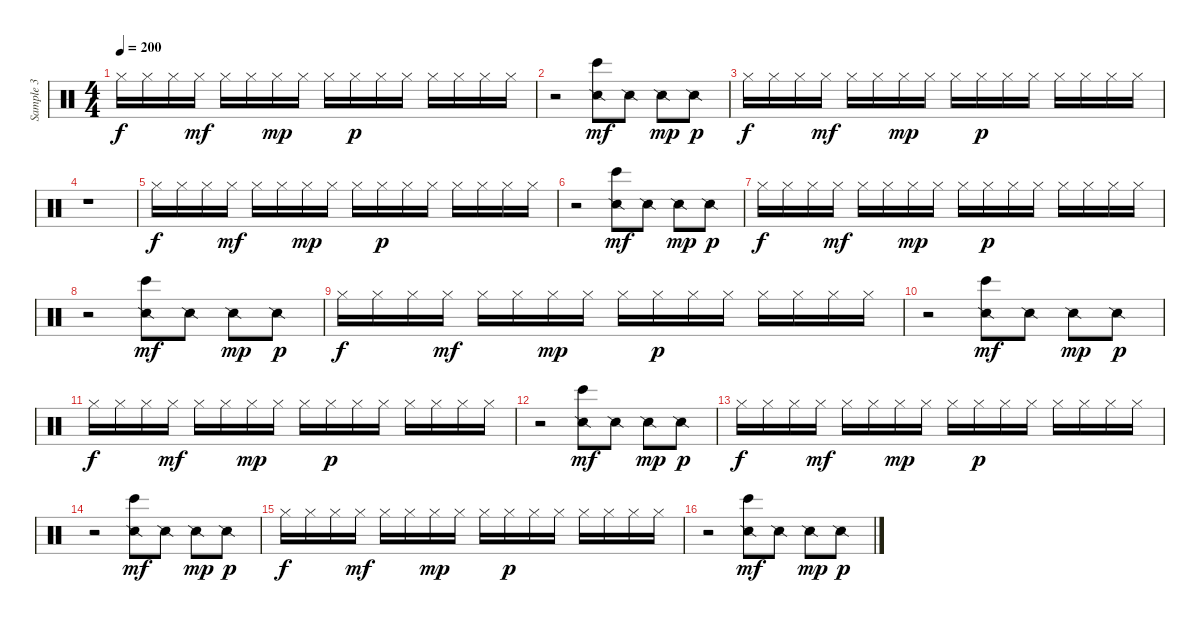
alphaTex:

\track ("Sample 3" "Sample 3") {instrument percussion}
\staff {score}
\articulation defaults
\ts (4 4)
\tempo 200
\clef neutral
\ks c "Hi-Hat (closed)".16{dy f} "Hi-Hat (closed)".16 "Hi-Hat (closed)".16 "Hi-Hat (closed)".16{dy mf} "Hi-Hat (closed)".16 "Hi-Hat (closed)".16 "Hi-Hat (closed)".16{dy mp} "Hi-Hat (closed)".16 "Hi-Hat (closed)".16 "Hi-Hat (closed)".16{dy p} "Hi-Hat (closed)".16 "Hi-Hat (closed)".16 "Hi-Hat (closed)".16 "Hi-Hat (closed)".16 "Hi-Hat (closed)".16 "Hi-Hat (closed)".16
|
r.2 ("Snare (side stick) 2" "Bongo High (hit)").8{dy mf} "Snare (side stick) 2".8 "Snare (side stick) 2".8{dy mp} "Snare (side stick) 2".8{dy p} |
"Hi-Hat (closed)".16{dy f} "Hi-Hat (closed)".16 "Hi-Hat (closed)".16 "Hi-Hat (closed)".16{dy mf} "Hi-Hat (closed)".16 "Hi-Hat (closed)".16 "Hi-Hat (closed)".16{dy mp} "Hi-Hat (closed)".16 "Hi-Hat (closed)".16 "Hi-Hat (closed)".16{dy p} "Hi-Hat (closed)".16 "Hi-Hat (closed)".16 "Hi-Hat (closed)".16 "Hi-Hat (closed)".16 "Hi-Hat (closed)".16 "Hi-Hat (closed)".16 |
r.1 |
"Hi-Hat (closed)".16{dy f} "Hi-Hat (closed)".16 "Hi-Hat (closed)".16 "Hi-Hat (closed)".16{dy mf} "Hi-Hat (closed)".16 "Hi-Hat (closed)".16 "Hi-Hat (closed)".16{dy mp} "Hi-Hat (closed)".16 "Hi-Hat (closed)".16 "Hi-Hat (closed)".16{dy p} "Hi-Hat (closed)".16 "Hi-Hat (closed)".16 "Hi-Hat (closed)".16 "Hi-Hat (closed)".16 "Hi-Hat (closed)".16 "Hi-Hat (closed)".16 |
r.2 ("Snare (side stick) 2" "Bongo High (hit)").8{dy mf} "Snare (side stick) 2".8 "Snare (side stick) 2".8{dy mp} "Snare (side stick) 2".8{dy p} |
"Hi-Hat (closed)".16{dy f} "Hi-Hat (closed)".16 "Hi-Hat (closed)".16 "Hi-Hat (closed)".16{dy mf} "Hi-Hat (closed)".16 "Hi-Hat (closed)".16 "Hi-Hat (closed)".16{dy mp} "Hi-Hat (closed)".16 "Hi-Hat (closed)".16 "Hi-Hat (closed)".16{dy p} "Hi-Hat (closed)".16 "Hi-Hat (closed)".16 "Hi-Hat (closed)".16 "Hi-Hat (closed)".16 "Hi-Hat (closed)".16 "Hi-Hat (closed)".16 |
r.2 ("Snare (side stick) 2" "Bongo High (hit)").8{dy mf} "Snare (side stick) 2".8 "Snare (side stick) 2".8{dy mp} "Snare (side stick) 2".8{dy p} |
"Hi-Hat (closed)".16{dy f} "Hi-Hat (closed)".16 "Hi-Hat (closed)".16 "Hi-Hat (closed)".16{dy mf} "Hi-Hat (closed)".16 "Hi-Hat (closed)".16 "Hi-Hat (closed)".16{dy mp} "Hi-Hat (closed)".16 "Hi-Hat (closed)".16 "Hi-Hat (closed)".16{dy p} "Hi-Hat (closed)".16 "Hi-Hat (closed)".16 "Hi-Hat (closed)".16 "Hi-Hat (closed)".16 "Hi-Hat (closed)".16 "Hi-Hat (closed)".16 |
r.2 ("Snare (side stick) 2" "Bongo High (hit)").8{dy mf} "Snare (side stick) 2".8 "Snare (side stick) 2".8{dy mp} "Snare (side stick) 2".8{dy p} |
"Hi-Hat (closed)".16{dy f} "Hi-Hat (closed)".16 "Hi-Hat (closed)".16 "Hi-Hat (closed)".16{dy mf} "Hi-Hat (closed)".16 "Hi-Hat (closed)".16 "Hi-Hat (closed)".16{dy mp} "Hi-Hat (closed)".16 "Hi-Hat (closed)".16 "Hi-Hat (closed)".16{dy p} "Hi-Hat (closed)".16 "Hi-Hat (closed)".16 "Hi-Hat (closed)".16 "Hi-Hat (closed)".16 "Hi-Hat (closed)".16 "Hi-Hat (closed)".16 |
r.2 ("Snare (side stick) 2" "Bongo High (hit)").8{dy mf} "Snare (side stick) 2".8 "Snare (side stick) 2".8{dy mp} "Snare (side stick) 2".8{dy p} |
"Hi-Hat (closed)".16{dy f} "Hi-Hat (closed)".16 "Hi-Hat (closed)".16 "Hi-Hat (closed)".16{dy mf} "Hi-Hat (closed)".16 "Hi-Hat (closed)".16 "Hi-Hat (closed)".16{dy mp} "Hi-Hat (closed)".16 "Hi-Hat (closed)".16 "Hi-Hat (closed)".16{dy p} "Hi-Hat (closed)".16 "Hi-Hat (closed)".16 "Hi-Hat (closed)".16 "Hi-Hat (closed)".16 "Hi-Hat (closed)".16 "Hi-Hat (closed)".16 |
r.2 ("Snare (side stick) 2" "Bongo High (hit)").8{dy mf} "Snare (side stick) 2".8 "Snare (side stick) 2".8{dy mp} "Snare (side stick) 2".8{dy p} |
"Hi-Hat (closed)".16{dy f} "Hi-Hat (closed)".16 "Hi-Hat (closed)".16 "Hi-Hat (closed)".16{dy mf} "Hi-Hat (closed)".16 "Hi-Hat (closed)".16 "Hi-Hat (closed)".16{dy mp} "Hi-Hat (closed)".16 "Hi-Hat (closed)".16 "Hi-Hat (closed)".16{dy p} "Hi-Hat (closed)".16 "Hi-Hat (closed)".16 "Hi-Hat (closed)".16 "Hi-Hat (closed)".16 "Hi-Hat (closed)".16 "Hi-Hat (closed)".16 |
r.2 ("Snare (side stick) 2" "Bongo High (hit)").8{dy mf} "Snare (side stick) 2".8 "Snare (side stick) 2".8{dy mp} "Snare (side stick) 2".8{dy p}
